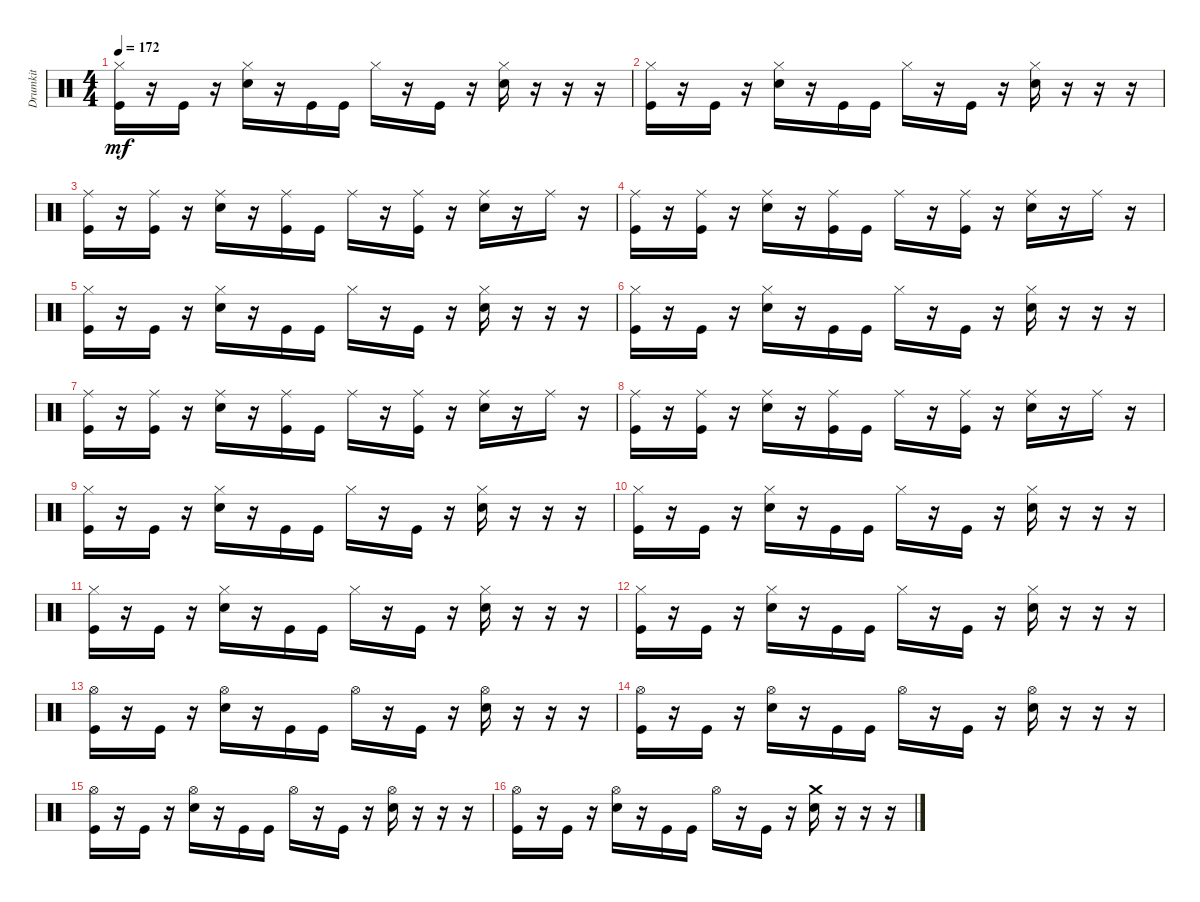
\track ("Drumkit" "Drumkit") {instrument percussion}
\staff {score}
\articulation defaults
\ts (4 4)
\tempo 172
\clef neutral
\ks c
("Hi-Hat (closed)" "Kick (hit)").16{dy mf} r.16 "Kick (hit)".16 r.16 ("Hi-Hat (closed)" "Snare (hit) 2").16 r.16 "Kick (hit)".16 "Kick (hit)".16 "Hi-Hat (closed)".16 r.16 "Kick (hit)".16 r.16 ("Hi-Hat (closed)" "Snare (hit) 2").16 r.16 r.16 r.16 |
("Hi-Hat (closed)" "Kick (hit)").16 r.16 "Kick (hit)".16 r.16 ("Hi-Hat (closed)" "Snare (hit) 2").16 r.16 "Kick (hit)".16 "Kick (hit)".16 "Hi-Hat (closed)".16 r.16 "Kick (hit)".16 r.16 ("Hi-Hat (closed)" "Snare (hit) 2").16 r.16 r.16 r.16 |
("Kick (hit)" "Ride (middle)").16 r.16 ("Kick (hit)" "Ride (middle)").16 r.16 ("Snare (hit) 2" "Ride (middle)").16 r.16 ("Kick (hit)" "Ride (middle)").16 "Kick (hit)".16 "Ride (middle)".16 r.16 ("Kick (hit)" "Ride (middle)").16 r.16 ("Snare (hit) 2" "Ride (middle)").16 r.16 "Ride (middle)".16 r.16 |
("Kick (hit)" "Ride (middle)").16 r.16 ("Kick (hit)" "Ride (middle)").16 r.16 ("Snare (hit) 2" "Ride (middle)").16 r.16 ("Kick (hit)" "Ride (middle)").16 "Kick (hit)".16 "Ride (middle)".16 r.16 ("Kick (hit)" "Ride (middle)").16 r.16 ("Snare (hit) 2" "Ride (middle)").16 r.16 "Ride (middle)".16 r.16 |
("Hi-Hat (closed)" "Kick (hit)").16 r.16 "Kick (hit)".16 r.16 ("Hi-Hat (closed)" "Snare (hit) 2").16 r.16 "Kick (hit)".16 "Kick (hit)".16 "Hi-Hat (closed)".16 r.16 "Kick (hit)".16 r.16 ("Hi-Hat (closed)" "Snare (hit) 2").16 r.16 r.16 r.16 |
("Hi-Hat (closed)" "Kick (hit)").16 r.16 "Kick (hit)".16 r.16 ("Hi-Hat (closed)" "Snare (hit) 2").16 r.16 "Kick (hit)".16 "Kick (hit)".16 "Hi-Hat (closed)".16 r.16 "Kick (hit)".16 r.16 ("Hi-Hat (closed)" "Snare (hit) 2").16 r.16 r.16 r.16 |
("Kick (hit)" "Ride (middle)").16 r.16 ("Kick (hit)" "Ride (middle)").16 r.16 ("Snare (hit) 2" "Ride (middle)").16 r.16 ("Kick (hit)" "Ride (middle)").16 "Kick (hit)".16 "Ride (middle)".16 r.16 ("Kick (hit)" "Ride (middle)").16 r.16 ("Snare (hit) 2" "Ride (middle)").16 r.16 "Ride (middle)".16 r.16 |
("Kick (hit)" "Ride (middle)").16 r.16 ("Kick (hit)" "Ride (middle)").16 r.16 ("Snare (hit) 2" "Ride (middle)").16 r.16 ("Kick (hit)" "Ride (middle)").16 "Kick (hit)".16 "Ride (middle)".16 r.16 ("Kick (hit)" "Ride (middle)").16 r.16 ("Snare (hit) 2" "Ride (middle)").16 r.16 "Ride (middle)".16 r.16 |
("Hi-Hat (closed)" "Kick (hit)").16 r.16 "Kick (hit)".16 r.16 ("Hi-Hat (closed)" "Snare (hit) 2").16 r.16 "Kick (hit)".16 "Kick (hit)".16 "Hi-Hat (closed)".16 r.16 "Kick (hit)".16 r.16 ("Hi-Hat (closed)" "Snare (hit) 2").16 r.16 r.16 r.16 |
("Hi-Hat (closed)" "Kick (hit)").16 r.16 "Kick (hit)".16 r.16 ("Hi-Hat (closed)" "Snare (hit) 2").16 r.16 "Kick (hit)".16 "Kick (hit)".16 "Hi-Hat (closed)".16 r.16 "Kick (hit)".16 r.16 ("Hi-Hat (closed)" "Snare (hit) 2").16 r.16 r.16 r.16 |
("Hi-Hat (closed)" "Kick (hit)").16 r.16 "Kick (hit)".16 r.16 ("Hi-Hat (closed)" "Snare (hit) 2").16 r.16 "Kick (hit)".16 "Kick (hit)".16 "Hi-Hat (closed)".16 r.16 "Kick (hit)".16 r.16 ("Hi-Hat (closed)" "Snare (hit) 2").16 r.16 r.16 r.16 |
("Hi-Hat (closed)" "Kick (hit)").16 r.16 "Kick (hit)".16 r.16 ("Hi-Hat (closed)" "Snare (hit) 2").16 r.16 "Kick (hit)".16 "Kick (hit)".16 "Hi-Hat (closed)".16 r.16 "Kick (hit)".16 r.16 ("Hi-Hat (closed)" "Snare (hit) 2").16 r.16 r.16 r.16 |
("Hi-Hat (open)" "Kick (hit)").16 r.16 "Kick (hit)".16 r.16 ("Hi-Hat (open)" "Snare (hit) 2").16 r.16 "Kick (hit)".16 "Kick (hit)".16 "Hi-Hat (open)".16 r.16 "Kick (hit)".16 r.16 ("Hi-Hat (open)" "Snare (hit) 2").16 r.16 r.16 r.16 |
("Hi-Hat (open)" "Kick (hit)").16 r.16 "Kick (hit)".16 r.16 ("Hi-Hat (open)" "Snare (hit) 2").16 r.16 "Kick (hit)".16 "Kick (hit)".16 "Hi-Hat (open)".16 r.16 "Kick (hit)".16 r.16 ("Hi-Hat (open)" "Snare (hit) 2").16 r.16 r.16 r.16 |
("Hi-Hat (open)" "Kick (hit)").16 r.16 "Kick (hit)".16 r.16 ("Hi-Hat (open)" "Snare (hit) 2").16 r.16 "Kick (hit)".16 "Kick (hit)".16 "Hi-Hat (open)".16 r.16 "Kick (hit)".16 r.16 ("Hi-Hat (open)" "Snare (hit) 2").16 r.16 r.16 r.16 |
("Hi-Hat (open)" "Kick (hit)").16 r.16 "Kick (hit)".16 r.16 ("Hi-Hat (open)" "Snare (hit) 2").16 r.16 "Kick (hit)".16 "Kick (hit)".16 "Hi-Hat (open)".16 r.16 "Kick (hit)".16 r.16 ("Snare (hit) 2" "Crash medium (hit)").16 r.16 r.16 r.16
